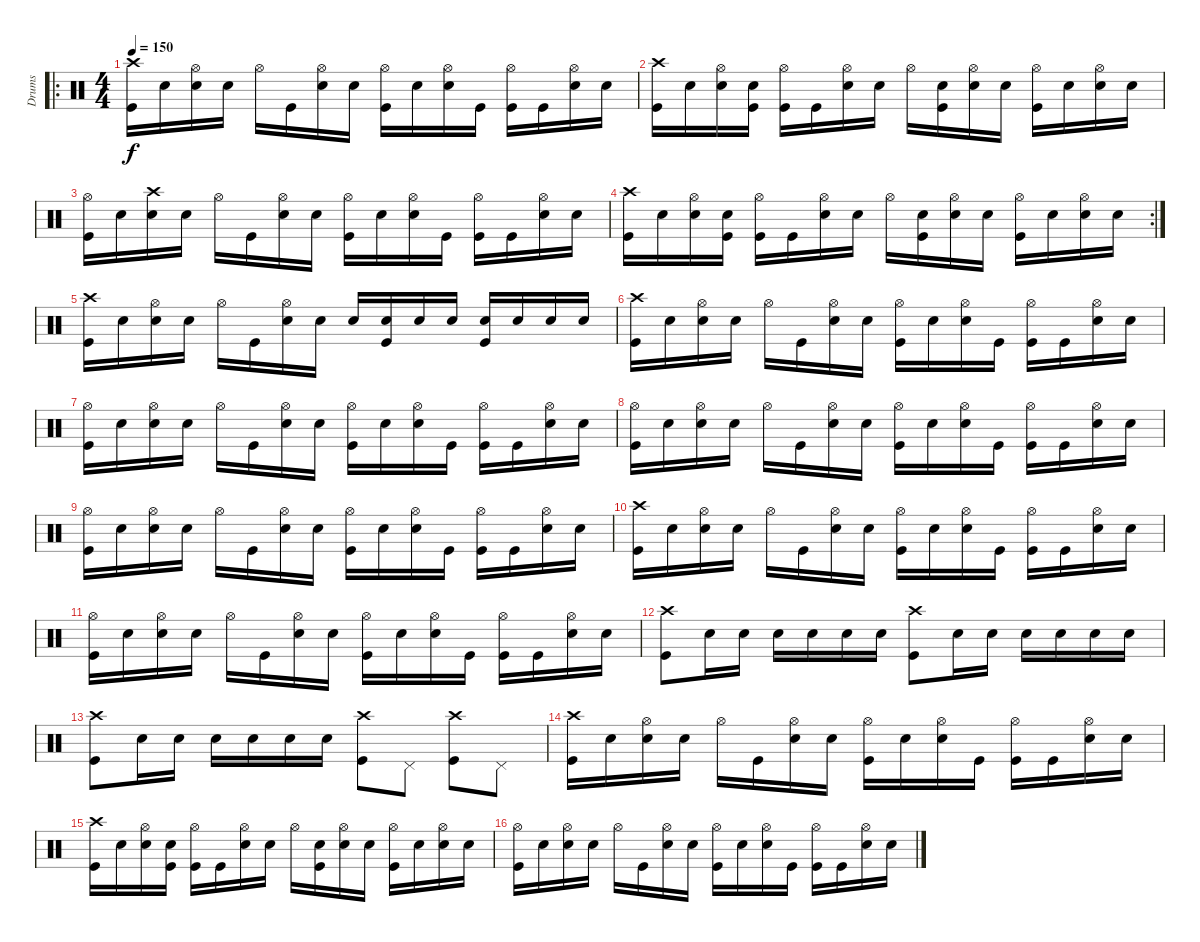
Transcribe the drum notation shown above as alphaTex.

\track ("Drums" "Drums") {instrument percussion}
\staff {score}
\articulation defaults
\ro
\ts (4 4)
\tempo 150
\clef neutral
\ks c
("Crash high (hit)" "Kick (hit)").16{dy f} "Snare (hit)".16 ("Hi-Hat (open)" "Snare (hit) 2").16 "Snare (hit)".16 "Hi-Hat (open)".16 "Kick (hit)".16 ("Hi-Hat (open)" "Snare (hit) 2").16 "Snare (hit)".16 ("Hi-Hat (open)" "Kick (hit)").16 "Snare (hit)".16 ("Hi-Hat (open)" "Snare (hit) 2").16 "Kick (hit)".16 ("Hi-Hat (open)" "Kick (hit)").16 "Kick (hit)".16 ("Hi-Hat (open)" "Snare (hit) 2").16 "Snare (hit)".16 |
("Crash high (hit)" "Kick (hit)").16 "Snare (hit)".16 ("Hi-Hat (open)" "Snare (hit) 2").16 ("Snare (hit)" "Kick (hit)").16 ("Hi-Hat (open)" "Kick (hit)").16 "Kick (hit)".16 ("Hi-Hat (open)" "Snare (hit) 2").16 "Snare (hit)".16 "Hi-Hat (open)".16 ("Snare (hit)" "Kick (hit)").16 ("Hi-Hat (open)" "Snare (hit) 2").16 "Snare (hit)".16 ("Hi-Hat (open)" "Kick (hit)").16 "Snare (hit)".16 ("Hi-Hat (open)" "Snare (hit) 2").16 "Snare (hit)".16 |
("Hi-Hat (open)" "Kick (hit)").16 "Snare (hit)".16 ("Crash high (hit)" "Snare (hit) 2").16 "Snare (hit)".16 "Hi-Hat (open)".16 "Kick (hit)".16 ("Hi-Hat (open)" "Snare (hit) 2").16 "Snare (hit)".16 ("Hi-Hat (open)" "Kick (hit)").16 "Snare (hit)".16 ("Hi-Hat (open)" "Snare (hit) 2").16 "Kick (hit)".16 ("Hi-Hat (open)" "Kick (hit)").16 "Kick (hit)".16 ("Hi-Hat (open)" "Snare (hit) 2").16 "Snare (hit)".16 |
\rc 2
("Crash high (hit)" "Kick (hit)").16 "Snare (hit)".16 ("Hi-Hat (open)" "Snare (hit) 2").16 ("Snare (hit)" "Kick (hit)").16 ("Hi-Hat (open)" "Kick (hit)").16 "Kick (hit)".16 ("Hi-Hat (open)" "Snare (hit) 2").16 "Snare (hit)".16 "Hi-Hat (open)".16 ("Snare (hit)" "Kick (hit)").16 ("Hi-Hat (open)" "Snare (hit) 2").16 "Snare (hit)".16 ("Hi-Hat (open)" "Kick (hit)").16 "Snare (hit)".16 ("Hi-Hat (open)" "Snare (hit) 2").16 "Snare (hit)".16 |
("Crash high (hit)" "Kick (hit)").16 "Snare (hit)".16 ("Hi-Hat (open)" "Snare (hit) 2").16 "Snare (hit)".16 "Hi-Hat (open)".16 "Kick (hit)".16 ("Hi-Hat (open)" "Snare (hit) 2").16 "Snare (hit)".16 "Snare (hit) 2".16 ("Snare (hit)" "Kick (hit)").16 "Snare (hit) 2".16 "Snare (hit)".16 ("Snare (hit) 2" "Kick (hit)").16 "Snare (hit)".16 "Snare (hit) 2".16 "Snare (hit)".16 |
("Crash high (hit)" "Kick (hit)").16 "Snare (hit)".16 ("Hi-Hat (open)" "Snare (hit) 2").16 "Snare (hit)".16 "Hi-Hat (open)".16 "Kick (hit)".16 ("Hi-Hat (open)" "Snare (hit) 2").16 "Snare (hit)".16 ("Hi-Hat (open)" "Kick (hit)").16 "Snare (hit)".16 ("Hi-Hat (open)" "Snare (hit) 2").16 "Kick (hit)".16 ("Hi-Hat (open)" "Kick (hit)").16 "Kick (hit)".16 ("Hi-Hat (open)" "Snare (hit) 2").16 "Snare (hit)".16 |
("Hi-Hat (open)" "Kick (hit)").16 "Snare (hit)".16 ("Hi-Hat (open)" "Snare (hit) 2").16 "Snare (hit)".16 "Hi-Hat (open)".16 "Kick (hit)".16 ("Hi-Hat (open)" "Snare (hit) 2").16 "Snare (hit)".16 ("Hi-Hat (open)" "Kick (hit)").16 "Snare (hit)".16 ("Hi-Hat (open)" "Snare (hit) 2").16 "Kick (hit)".16 ("Hi-Hat (open)" "Kick (hit)").16 "Kick (hit)".16 ("Hi-Hat (open)" "Snare (hit) 2").16 "Snare (hit)".16 |
("Hi-Hat (open)" "Kick (hit)").16 "Snare (hit)".16 ("Hi-Hat (open)" "Snare (hit) 2").16 "Snare (hit)".16 "Hi-Hat (open)".16 "Kick (hit)".16 ("Hi-Hat (open)" "Snare (hit) 2").16 "Snare (hit)".16 ("Hi-Hat (open)" "Kick (hit)").16 "Snare (hit)".16 ("Hi-Hat (open)" "Snare (hit) 2").16 "Kick (hit)".16 ("Hi-Hat (open)" "Kick (hit)").16 "Kick (hit)".16 ("Hi-Hat (open)" "Snare (hit) 2").16 "Snare (hit)".16 |
("Hi-Hat (open)" "Kick (hit)").16 "Snare (hit)".16 ("Hi-Hat (open)" "Snare (hit) 2").16 "Snare (hit)".16 "Hi-Hat (open)".16 "Kick (hit)".16 ("Hi-Hat (open)" "Snare (hit) 2").16 "Snare (hit)".16 ("Hi-Hat (open)" "Kick (hit)").16 "Snare (hit)".16 ("Hi-Hat (open)" "Snare (hit) 2").16 "Kick (hit)".16 ("Hi-Hat (open)" "Kick (hit)").16 "Kick (hit)".16 ("Hi-Hat (open)" "Snare (hit) 2").16 "Snare (hit)".16 |
("Crash high (hit)" "Kick (hit)").16 "Snare (hit)".16 ("Hi-Hat (open)" "Snare (hit) 2").16 "Snare (hit)".16 "Hi-Hat (open)".16 "Kick (hit)".16 ("Hi-Hat (open)" "Snare (hit) 2").16 "Snare (hit)".16 ("Hi-Hat (open)" "Kick (hit)").16 "Snare (hit)".16 ("Hi-Hat (open)" "Snare (hit) 2").16 "Kick (hit)".16 ("Hi-Hat (open)" "Kick (hit)").16 "Kick (hit)".16 ("Hi-Hat (open)" "Snare (hit) 2").16 "Snare (hit)".16 |
("Hi-Hat (open)" "Kick (hit)").16 "Snare (hit)".16 ("Hi-Hat (open)" "Snare (hit) 2").16 "Snare (hit)".16 "Hi-Hat (open)".16 "Kick (hit)".16 ("Hi-Hat (open)" "Snare (hit) 2").16 "Snare (hit)".16 ("Hi-Hat (open)" "Kick (hit)").16 "Snare (hit)".16 ("Hi-Hat (open)" "Snare (hit) 2").16 "Kick (hit)".16 ("Hi-Hat (open)" "Kick (hit)").16 "Kick (hit)".16 ("Hi-Hat (open)" "Snare (hit) 2").16 "Snare (hit)".16 |
("Crash high (hit)" "Kick (hit)").8 "Snare (hit) 2".16 "Snare (hit) 2".16 "Snare (hit) 2".16 "Snare (hit) 2".16 "Snare (hit) 2".16 "Snare (hit) 2".16 ("Crash high (hit)" "Kick (hit)").8 "Snare (hit) 2".16 "Snare (hit) 2".16 "Snare (hit) 2".16 "Snare (hit) 2".16 "Snare (hit) 2".16 "Snare (hit) 2".16 |
("Crash high (hit)" "Kick (hit)").8 "Snare (hit) 2".16 "Snare (hit) 2".16 "Snare (hit) 2".16 "Snare (hit) 2".16 "Snare (hit) 2".16 "Snare (hit) 2".16 ("Crash high (hit)" "Kick (hit)").8 "Pedal Hi-Hat (hit)".8 ("Crash high (hit)" "Kick (hit)").8 "Pedal Hi-Hat (hit)".8 |
("Crash high (hit)" "Kick (hit)").16 "Snare (hit)".16 ("Hi-Hat (open)" "Snare (hit) 2").16 "Snare (hit)".16 "Hi-Hat (open)".16 "Kick (hit)".16 ("Hi-Hat (open)" "Snare (hit) 2").16 "Snare (hit)".16 ("Hi-Hat (open)" "Kick (hit)").16 "Snare (hit)".16 ("Hi-Hat (open)" "Snare (hit) 2").16 "Kick (hit)".16 ("Hi-Hat (open)" "Kick (hit)").16 "Kick (hit)".16 ("Hi-Hat (open)" "Snare (hit) 2").16 "Snare (hit)".16 |
("Crash high (hit)" "Kick (hit)").16 "Snare (hit)".16 ("Hi-Hat (open)" "Snare (hit) 2").16 ("Snare (hit)" "Kick (hit)").16 ("Hi-Hat (open)" "Kick (hit)").16 "Kick (hit)".16 ("Hi-Hat (open)" "Snare (hit) 2").16 "Snare (hit)".16 "Hi-Hat (open)".16 ("Snare (hit)" "Kick (hit)").16 ("Hi-Hat (open)" "Snare (hit) 2").16 "Snare (hit)".16 ("Hi-Hat (open)" "Kick (hit)").16 "Snare (hit)".16 ("Hi-Hat (open)" "Snare (hit) 2").16 "Snare (hit)".16 |
("Hi-Hat (open)" "Kick (hit)").16 "Snare (hit)".16 ("Hi-Hat (open)" "Snare (hit) 2").16 "Snare (hit)".16 "Hi-Hat (open)".16 "Kick (hit)".16 ("Hi-Hat (open)" "Snare (hit) 2").16 "Snare (hit)".16 ("Hi-Hat (open)" "Kick (hit)").16 "Snare (hit)".16 ("Hi-Hat (open)" "Snare (hit) 2").16 "Kick (hit)".16 ("Hi-Hat (open)" "Kick (hit)").16 "Kick (hit)".16 ("Hi-Hat (open)" "Snare (hit) 2").16 "Snare (hit)".16
